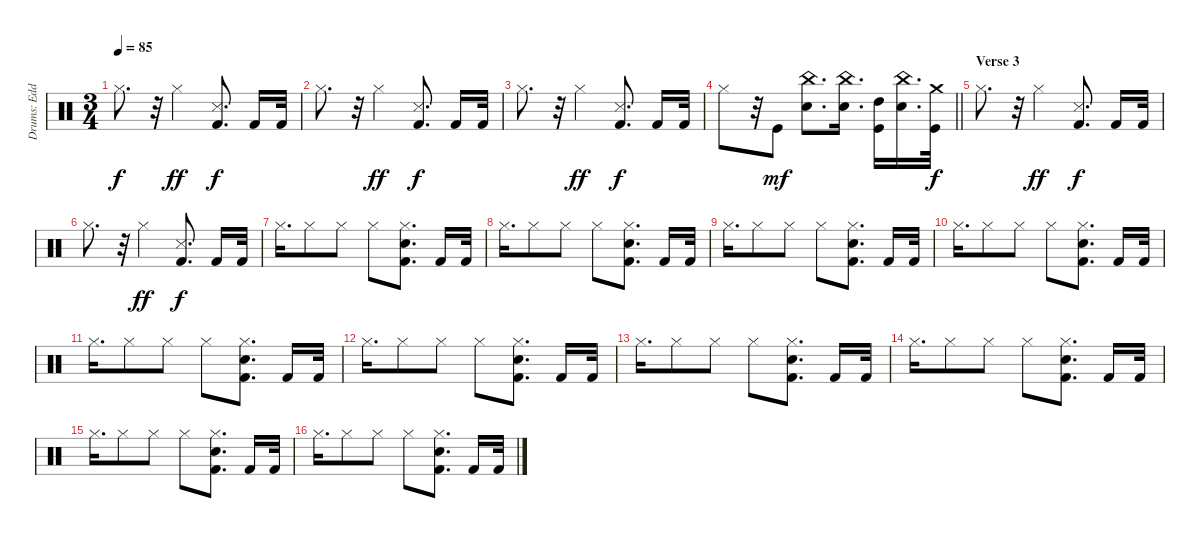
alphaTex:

\track ("Drums: Eddie Bayers" "Drums: Edd") {instrument percussion}
\staff {score}
\articulation defaults
\ts (3 4)
\tempo 85
\clef neutral
\ks c "Hi-Hat (closed)".8{d dy f}
r.32 "Hi-Hat (closed)".4{dy ff} ("Snare (side stick) 3" "Kick (hit) 2").8{d dy f} "Kick (hit) 2".16 "Kick (hit) 2".32 |
"Hi-Hat (closed)".8{d} r.32 "Hi-Hat (closed)".4{dy ff} ("Snare (side stick) 3" "Kick (hit) 2").8{d dy f} "Kick (hit) 2".16 "Kick (hit) 2".32 |
"Hi-Hat (closed)".8{d} r.32 "Hi-Hat (closed)".4{dy ff} ("Snare (side stick) 3" "Kick (hit) 2").8{d dy f} "Kick (hit) 2".16 "Kick (hit) 2".32 |
\barLineRight lightlight "Hi-Hat (closed)".8
r.32 "Kick (hit)".8{dy mf} ("China (hit)" "Snare (hit) 2").8{d} ("China (hit)" "Snare (hit) 2").16{d} ("High Tom (hit)" "Kick (hit)").16 ("China (hit)" "Snare (hit) 2").16{d} ("Crash medium (hit)" "Kick (hit)").32{dy f} |
\section ("" "Verse 3")
"Hi-Hat (closed)".8{d} r.32 "Hi-Hat (closed)".4{dy ff} ("Snare (side stick) 3" "Kick (hit) 2").8{d dy f} "Kick (hit) 2".16 "Kick (hit) 2".32 |
"Hi-Hat (closed)".8{d} r.32 "Hi-Hat (closed)".4{dy ff} ("Snare (side stick) 3" "Kick (hit) 2").8{d dy f} "Kick (hit) 2".16 "Kick (hit) 2".32 |
"Hi-Hat (closed)".16{d} "Hi-Hat (closed)".8 "Hi-Hat (closed)".8 "Hi-Hat (closed)".8 ("Hi-Hat (closed)" "Snare (hit) 2" "Kick (hit) 2").8{d} "Kick (hit) 2".16 "Kick (hit) 2".32 |
"Hi-Hat (closed)".16{d} "Hi-Hat (closed)".8 "Hi-Hat (closed)".8 "Hi-Hat (closed)".8 ("Hi-Hat (closed)" "Snare (hit) 2" "Kick (hit) 2").8{d} "Kick (hit) 2".16 "Kick (hit) 2".32 |
"Hi-Hat (closed)".16{d} "Hi-Hat (closed)".8 "Hi-Hat (closed)".8 "Hi-Hat (closed)".8 ("Hi-Hat (closed)" "Snare (hit) 2" "Kick (hit) 2").8{d} "Kick (hit) 2".16 "Kick (hit) 2".32 |
"Hi-Hat (closed)".16{d} "Hi-Hat (closed)".8 "Hi-Hat (closed)".8 "Hi-Hat (closed)".8 ("Hi-Hat (closed)" "Snare (hit) 2" "Kick (hit) 2").8{d} "Kick (hit) 2".16 "Kick (hit) 2".32 |
"Hi-Hat (closed)".16{d} "Hi-Hat (closed)".8 "Hi-Hat (closed)".8 "Hi-Hat (closed)".8 ("Hi-Hat (closed)" "Snare (hit) 2" "Kick (hit) 2").8{d} "Kick (hit) 2".16 "Kick (hit) 2".32 |
"Hi-Hat (closed)".16{d} "Hi-Hat (closed)".8 "Hi-Hat (closed)".8 "Hi-Hat (closed)".8 ("Hi-Hat (closed)" "Snare (hit) 2" "Kick (hit) 2").8{d} "Kick (hit) 2".16 "Kick (hit) 2".32 |
"Hi-Hat (closed)".16{d} "Hi-Hat (closed)".8 "Hi-Hat (closed)".8 "Hi-Hat (closed)".8 ("Hi-Hat (closed)" "Snare (hit) 2" "Kick (hit) 2").8{d} "Kick (hit) 2".16 "Kick (hit) 2".32 |
"Hi-Hat (closed)".16{d} "Hi-Hat (closed)".8 "Hi-Hat (closed)".8 "Hi-Hat (closed)".8 ("Hi-Hat (closed)" "Snare (hit) 2" "Kick (hit) 2").8{d} "Kick (hit) 2".16 "Kick (hit) 2".32 |
"Hi-Hat (closed)".16{d} "Hi-Hat (closed)".8 "Hi-Hat (closed)".8 "Hi-Hat (closed)".8 ("Hi-Hat (closed)" "Snare (hit) 2" "Kick (hit) 2").8{d} "Kick (hit) 2".16 "Kick (hit) 2".32 |
"Hi-Hat (closed)".16{d} "Hi-Hat (closed)".8 "Hi-Hat (closed)".8 "Hi-Hat (closed)".8 ("Hi-Hat (closed)" "Snare (hit) 2" "Kick (hit) 2").8{d} "Kick (hit) 2".16 "Kick (hit) 2".32
